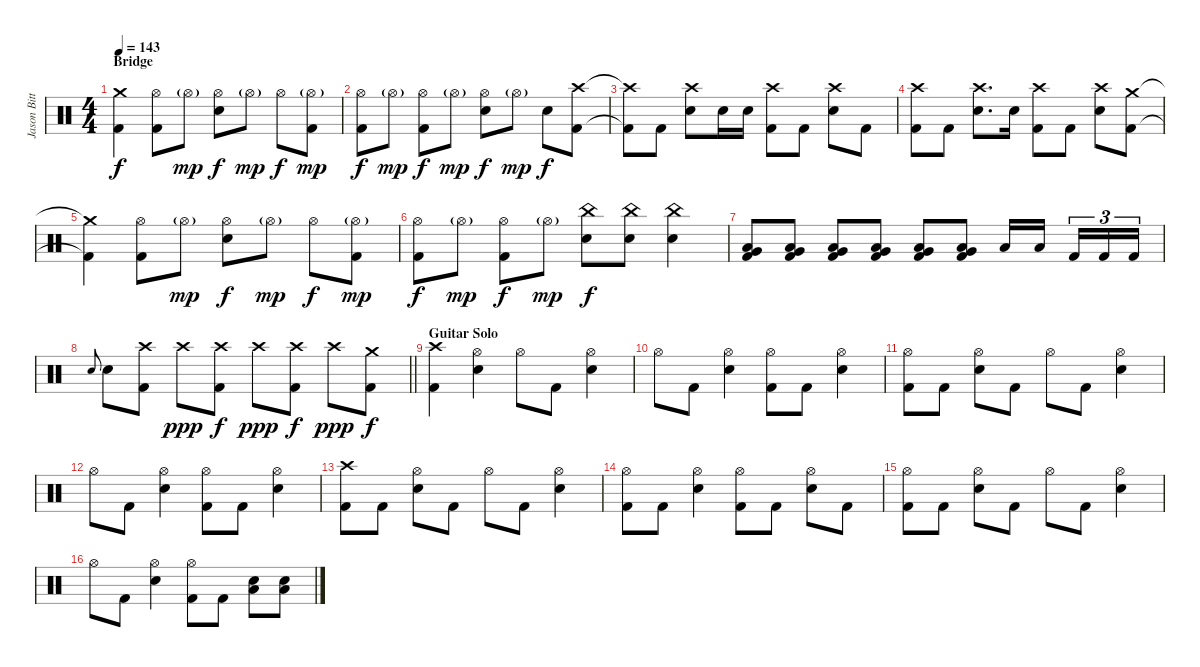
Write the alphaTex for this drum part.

\track ("Jason Bittner" "Jason Bitt") {instrument percussion}
\staff {score}
\articulation defaults
\ts (4 4)
\section ("" "Bridge")
\tempo 143
\clef neutral
\ks c
("Crash medium (hit)"{t} "Kick (hit) 2"{t}).4{dy f} ("Hi-Hat (open)" "Kick (hit) 2").8 "Hi-Hat (open)"{g}.8{dy mp} ("Hi-Hat (open)" "Electric Snare (hit)").8{dy f} "Hi-Hat (open)"{g}.8{dy mp} "Hi-Hat (open)".8{dy f} ("Hi-Hat (open)"{g} "Kick (hit) 2").8{dy mp} |
("Hi-Hat (open)" "Kick (hit) 2").8{dy f} "Hi-Hat (open)"{g}.8{dy mp} ("Hi-Hat (open)" "Kick (hit) 2").8{dy f} "Hi-Hat (open)"{g}.8{dy mp} ("Hi-Hat (open)" "Electric Snare (hit)").8{dy f} "Hi-Hat (open)"{g}.8{dy mp} "Electric Snare (hit)".8{dy f} ("Crash high (hit)" "Kick (hit) 2").8 |
("Crash high (hit)"{t} "Kick (hit) 2"{t}).8 "Kick (hit) 2".8 ("Crash high (hit)" "Electric Snare (hit)").8 "Electric Snare (hit)".16 "Electric Snare (hit)".16 ("Crash high (hit)" "Kick (hit) 2").8 "Kick (hit) 2".8 ("Crash high (hit)" "Electric Snare (hit)").8 "Kick (hit) 2".8 |
("Crash high (hit)" "Kick (hit) 2").8 "Kick (hit) 2".8 ("Crash high (hit)" "Electric Snare (hit)").8{d} "Electric Snare (hit)".16 ("Crash high (hit)" "Kick (hit) 2").8 "Kick (hit) 2".8 ("Crash high (hit)" "Electric Snare (hit)").8 ("Crash medium (hit)" "Kick (hit) 2").8 |
("Crash medium (hit)"{t} "Kick (hit) 2"{t}).4 ("Hi-Hat (open)" "Kick (hit) 2").8 "Hi-Hat (open)"{g}.8{dy mp} ("Hi-Hat (open)" "Electric Snare (hit)").8{dy f} "Hi-Hat (open)"{g}.8{dy mp} "Hi-Hat (open)".8{dy f} ("Hi-Hat (open)"{g} "Kick (hit) 2").8{dy mp} |
("Hi-Hat (open)" "Kick (hit) 2").8{dy f} "Hi-Hat (open)"{g}.8{dy mp} ("Hi-Hat (open)" "Kick (hit) 2").8{dy f} "Hi-Hat (open)"{g}.8{dy mp} ("China (hit)" "Electric Snare (hit)").8{dy f} ("China (hit)" "Electric Snare (hit)").8 ("China (hit)" "Electric Snare (hit)").4 |
("Low Tom (hit)" "Very Low Tom (hit)" "Kick (hit) 2").8 ("Low Tom (hit)" "Very Low Tom (hit)" "Kick (hit) 2").8 ("Low Tom (hit)" "Very Low Tom (hit)" "Kick (hit) 2").8 ("Low Tom (hit)" "Very Low Tom (hit)" "Kick (hit) 2").8 ("Low Tom (hit)" "Very Low Tom (hit)" "Kick (hit) 2").8 ("Low Tom (hit)" "Very Low Tom (hit)" "Kick (hit) 2").8 "Low Tom (hit)".16 "Low Tom (hit)".16{beam splitsecondary} "Kick (hit) 2".16{tu (3 2)} "Kick (hit) 2".16{tu (3 2)} "Kick (hit) 2".16{tu (3 2)} |
\barLineRight lightlight "Electric Snare (hit)".8{gr onbeat} "Electric Snare (hit)".8
("Crash high (hit)" "Kick (hit) 2").8 "Crash high (hit)".8{dy ppp} ("Crash high (hit)" "Kick (hit) 2").8{dy f} "Crash high (hit)".8{dy ppp} ("Crash high (hit)" "Kick (hit) 2").8{dy f} "Crash high (hit)".8{dy ppp} ("Crash medium (hit)" "Kick (hit) 2").8{dy f} |
\section ("" "Guitar Solo")
("Crash high (hit)" "Kick (hit) 2").4 ("Hi-Hat (open)" "Electric Snare (hit)").4 "Hi-Hat (open)".8 "Kick (hit) 2".8 ("Hi-Hat (open)" "Electric Snare (hit)").4 |
"Hi-Hat (open)".8 "Kick (hit) 2".8 ("Hi-Hat (open)" "Electric Snare (hit)").4 ("Hi-Hat (open)" "Kick (hit) 2").8 "Kick (hit) 2".8 ("Hi-Hat (open)" "Electric Snare (hit)").4 |
("Hi-Hat (open)" "Kick (hit) 2").8 "Kick (hit) 2".8 ("Hi-Hat (open)" "Electric Snare (hit)").8 "Kick (hit) 2".8 "Hi-Hat (open)".8 "Kick (hit) 2".8 ("Hi-Hat (open)" "Electric Snare (hit)").4 |
"Hi-Hat (open)".8 "Kick (hit) 2".8 ("Hi-Hat (open)" "Electric Snare (hit)").4 ("Hi-Hat (open)" "Kick (hit) 2").8 "Kick (hit) 2".8 ("Hi-Hat (open)" "Electric Snare (hit)").4 |
("Crash high (hit)" "Kick (hit) 2").8 "Kick (hit) 2".8 ("Hi-Hat (open)" "Electric Snare (hit)").8 "Kick (hit) 2".8 "Hi-Hat (open)".8 "Kick (hit) 2".8 ("Hi-Hat (open)" "Electric Snare (hit)").4 |
("Hi-Hat (open)" "Kick (hit) 2").8 "Kick (hit) 2".8 ("Hi-Hat (open)" "Electric Snare (hit)").4 ("Hi-Hat (open)" "Kick (hit) 2").8 "Kick (hit) 2".8 ("Hi-Hat (open)" "Electric Snare (hit)").8 "Kick (hit) 2".8 |
("Hi-Hat (open)" "Kick (hit) 2").8 "Kick (hit) 2".8 ("Hi-Hat (open)" "Electric Snare (hit)").8 "Kick (hit) 2".8 "Hi-Hat (open)".8 "Kick (hit) 2".8 ("Hi-Hat (open)" "Electric Snare (hit)").4 |
"Hi-Hat (open)".8 "Kick (hit) 2".8 ("Hi-Hat (open)" "Electric Snare (hit)").4 ("Hi-Hat (open)" "Kick (hit) 2").8 "Kick (hit) 2".8 ("Electric Snare (hit)" "Low Tom (hit)").8 ("Electric Snare (hit)" "Low Tom (hit)").8
